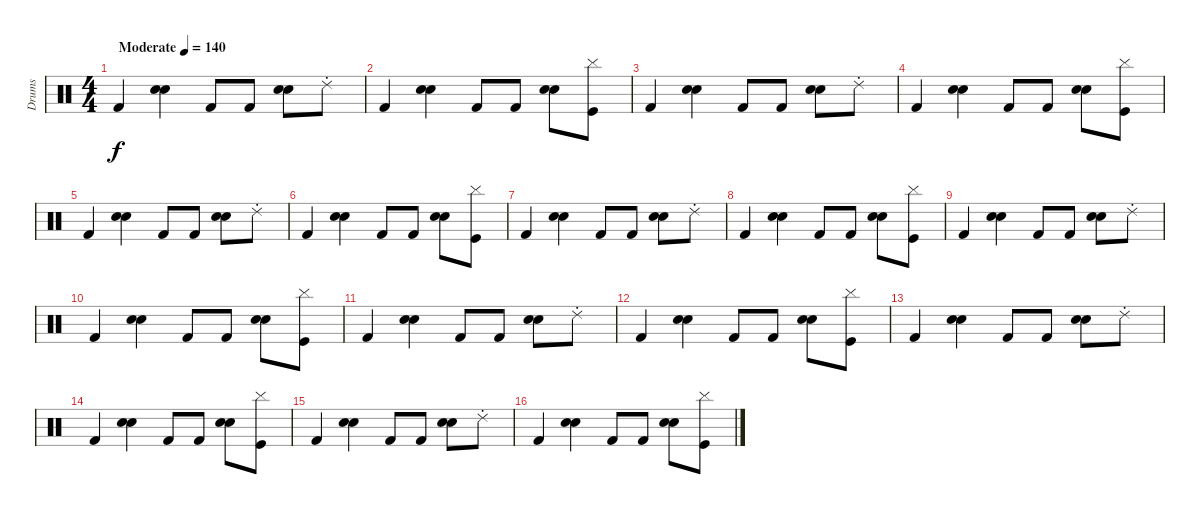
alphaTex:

\track ("Drums" "Drums") {instrument percussion}
\staff {score}
\articulation defaults
\ts (4 4)
\tempo (140 "Moderate")
\clef neutral
\ks c "Kick (hit) 2".4{dy f}
("Hand Clap (hit)" "Electric Snare (hit)").4 "Kick (hit) 2".8 "Kick (hit) 2".8 ("Hand Clap (hit)" "Electric Snare (hit)").8 "Ride (choke) 2".8 |
"Kick (hit) 2".4 ("Hand Clap (hit)" "Electric Snare (hit)").4 "Kick (hit) 2".8 "Kick (hit) 2".8 ("Hand Clap (hit)" "Electric Snare (hit)").8 ("Kick (hit)" "Cymbal (hit)").8 |
"Kick (hit) 2".4 ("Hand Clap (hit)" "Electric Snare (hit)").4 "Kick (hit) 2".8 "Kick (hit) 2".8 ("Hand Clap (hit)" "Electric Snare (hit)").8 "Ride (choke) 2".8 |
"Kick (hit) 2".4 ("Hand Clap (hit)" "Electric Snare (hit)").4 "Kick (hit) 2".8 "Kick (hit) 2".8 ("Hand Clap (hit)" "Electric Snare (hit)").8 ("Kick (hit)" "Cymbal (hit)").8 |
"Kick (hit) 2".4 ("Hand Clap (hit)" "Electric Snare (hit)").4 "Kick (hit) 2".8 "Kick (hit) 2".8 ("Hand Clap (hit)" "Electric Snare (hit)").8 "Ride (choke) 2".8 |
"Kick (hit) 2".4 ("Hand Clap (hit)" "Electric Snare (hit)").4 "Kick (hit) 2".8 "Kick (hit) 2".8 ("Hand Clap (hit)" "Electric Snare (hit)").8 ("Kick (hit)" "Cymbal (hit)").8 |
"Kick (hit) 2".4 ("Hand Clap (hit)" "Electric Snare (hit)").4 "Kick (hit) 2".8 "Kick (hit) 2".8 ("Hand Clap (hit)" "Electric Snare (hit)").8 "Ride (choke) 2".8 |
"Kick (hit) 2".4 ("Hand Clap (hit)" "Electric Snare (hit)").4 "Kick (hit) 2".8 "Kick (hit) 2".8 ("Hand Clap (hit)" "Electric Snare (hit)").8 ("Kick (hit)" "Cymbal (hit)").8 |
"Kick (hit) 2".4 ("Hand Clap (hit)" "Electric Snare (hit)").4 "Kick (hit) 2".8 "Kick (hit) 2".8 ("Hand Clap (hit)" "Electric Snare (hit)").8 "Ride (choke) 2".8 |
"Kick (hit) 2".4 ("Hand Clap (hit)" "Electric Snare (hit)").4 "Kick (hit) 2".8 "Kick (hit) 2".8 ("Hand Clap (hit)" "Electric Snare (hit)").8 ("Kick (hit)" "Cymbal (hit)").8 |
"Kick (hit) 2".4 ("Hand Clap (hit)" "Electric Snare (hit)").4 "Kick (hit) 2".8 "Kick (hit) 2".8 ("Hand Clap (hit)" "Electric Snare (hit)").8 "Ride (choke) 2".8 |
"Kick (hit) 2".4 ("Hand Clap (hit)" "Electric Snare (hit)").4 "Kick (hit) 2".8 "Kick (hit) 2".8 ("Hand Clap (hit)" "Electric Snare (hit)").8 ("Kick (hit)" "Cymbal (hit)").8 |
"Kick (hit) 2".4 ("Hand Clap (hit)" "Electric Snare (hit)").4 "Kick (hit) 2".8 "Kick (hit) 2".8 ("Hand Clap (hit)" "Electric Snare (hit)").8 "Ride (choke) 2".8 |
"Kick (hit) 2".4 ("Hand Clap (hit)" "Electric Snare (hit)").4 "Kick (hit) 2".8 "Kick (hit) 2".8 ("Hand Clap (hit)" "Electric Snare (hit)").8 ("Kick (hit)" "Cymbal (hit)").8 |
"Kick (hit) 2".4 ("Hand Clap (hit)" "Electric Snare (hit)").4 "Kick (hit) 2".8 "Kick (hit) 2".8 ("Hand Clap (hit)" "Electric Snare (hit)").8 "Ride (choke) 2".8 |
"Kick (hit) 2".4 ("Hand Clap (hit)" "Electric Snare (hit)").4 "Kick (hit) 2".8 "Kick (hit) 2".8 ("Hand Clap (hit)" "Electric Snare (hit)").8 ("Kick (hit)" "Cymbal (hit)").8
